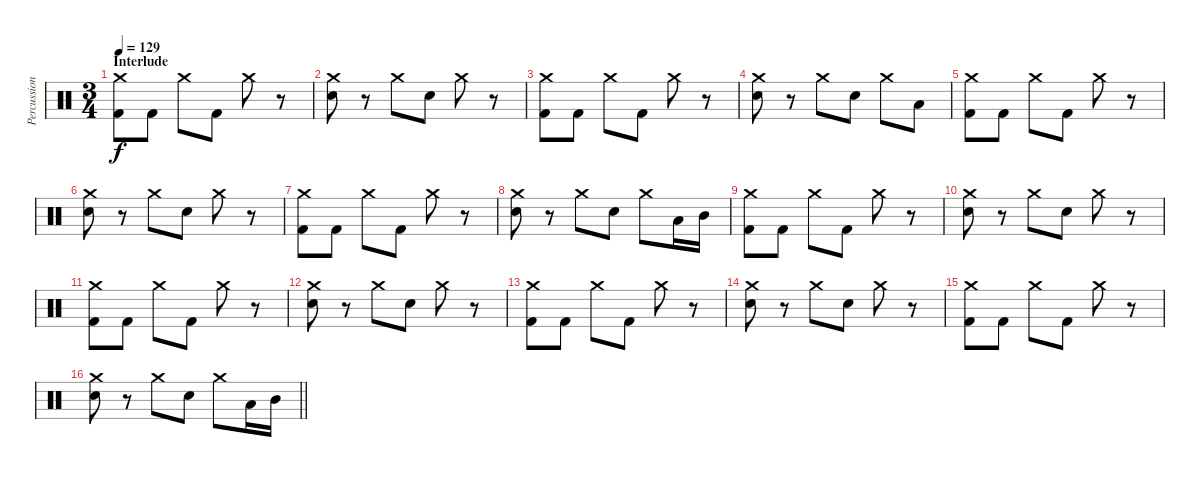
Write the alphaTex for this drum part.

\track ("Percussion" "Percussion") {instrument percussion}
\staff {score}
\articulation defaults
\ts (3 4)
\section ("" "Interlude")
\tempo 129
\clef neutral
\ks c
("Crash medium (hit)" "Kick (hit) 2").8{dy f} "Kick (hit) 2".8 "Crash medium (hit)".8 "Kick (hit) 2".8 "Crash medium (hit)".8 r.8 |
("Crash medium (hit)" "Electric Snare (hit)").8 r.8 "Crash medium (hit)".8 "Electric Snare (hit)".8 "Crash medium (hit)".8 r.8 |
("Crash medium (hit)" "Kick (hit) 2").8 "Kick (hit) 2".8 "Crash medium (hit)".8 "Kick (hit) 2".8 "Crash medium (hit)".8 r.8 |
("Crash medium (hit)" "Electric Snare (hit)").8 r.8 "Crash medium (hit)".8 "Electric Snare (hit)".8 "Crash medium (hit)".8 "Low Tom (hit)".8 |
("Crash medium (hit)" "Kick (hit) 2").8 "Kick (hit) 2".8 "Crash medium (hit)".8 "Kick (hit) 2".8 "Crash medium (hit)".8 r.8 |
("Crash medium (hit)" "Electric Snare (hit)").8 r.8 "Crash medium (hit)".8 "Electric Snare (hit)".8 "Crash medium (hit)".8 r.8 |
("Crash medium (hit)" "Kick (hit) 2").8 "Kick (hit) 2".8 "Crash medium (hit)".8 "Kick (hit) 2".8 "Crash medium (hit)".8 r.8 |
("Crash medium (hit)" "Electric Snare (hit)").8 r.8 "Crash medium (hit)".8 "Electric Snare (hit)".8 "Crash medium (hit)".8 "Low Tom (hit)".16 "Mid Tom (hit)".16 |
("Crash medium (hit)" "Kick (hit) 2").8 "Kick (hit) 2".8 "Crash medium (hit)".8 "Kick (hit) 2".8 "Crash medium (hit)".8 r.8 |
("Crash medium (hit)" "Electric Snare (hit)").8 r.8 "Crash medium (hit)".8 "Electric Snare (hit)".8 "Crash medium (hit)".8 r.8 |
("Crash medium (hit)" "Kick (hit) 2").8 "Kick (hit) 2".8 "Crash medium (hit)".8 "Kick (hit) 2".8 "Crash medium (hit)".8 r.8 |
("Crash medium (hit)" "Electric Snare (hit)").8 r.8 "Crash medium (hit)".8 "Electric Snare (hit)".8 "Crash medium (hit)".8 r.8 |
("Crash medium (hit)" "Kick (hit) 2").8 "Kick (hit) 2".8 "Crash medium (hit)".8 "Kick (hit) 2".8 "Crash medium (hit)".8 r.8 |
("Crash medium (hit)" "Electric Snare (hit)").8 r.8 "Crash medium (hit)".8 "Electric Snare (hit)".8 "Crash medium (hit)".8 r.8 |
("Crash medium (hit)" "Kick (hit) 2").8 "Kick (hit) 2".8 "Crash medium (hit)".8 "Kick (hit) 2".8 "Crash medium (hit)".8 r.8 |
\barLineRight lightlight
("Crash medium (hit)" "Electric Snare (hit)").8 r.8 "Crash medium (hit)".8 "Electric Snare (hit)".8 "Crash medium (hit)".8 "Low Tom (hit)".16 "Mid Tom (hit)".16
